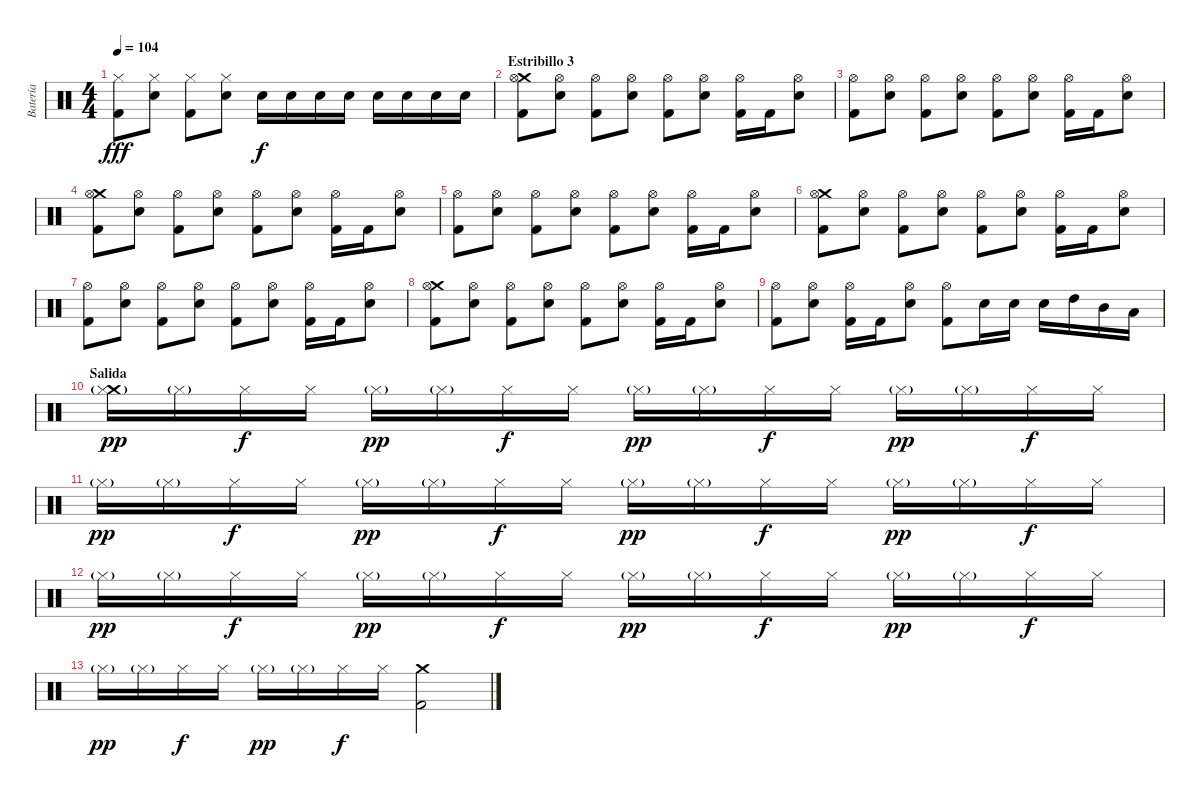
\track ("Batería" "Batería") {instrument percussion}
\staff {score}
\articulation defaults
\ts (4 4)
\tempo 104
\clef neutral
\ks c
("Hi-Hat (closed)" "Kick (hit) 2").8{dy fff} ("Hi-Hat (closed)" "Snare (hit) 2").8 ("Hi-Hat (closed)" "Kick (hit) 2").8 ("Hi-Hat (closed)" "Snare (hit) 2").8 "Snare (hit) 2".16{dy f} "Snare (hit) 2".16 "Snare (hit) 2".16 "Snare (hit) 2".16 "Snare (hit) 2".16 "Snare (hit) 2".16 "Snare (hit) 2".16 "Snare (hit) 2".16 |
\section ("" "Estribillo 3")
("Crash medium (hit)" "Hi-Hat (open)" "Kick (hit) 2").8 ("Hi-Hat (open)" "Snare (hit) 2").8 ("Hi-Hat (open)" "Kick (hit) 2").8 ("Hi-Hat (open)" "Snare (hit) 2").8 ("Hi-Hat (open)" "Kick (hit) 2").8 ("Hi-Hat (open)" "Snare (hit) 2").8 ("Hi-Hat (open)" "Kick (hit) 2").16 "Kick (hit) 2".16 ("Hi-Hat (open)" "Snare (hit) 2").8 |
("Hi-Hat (open)" "Kick (hit) 2").8 ("Hi-Hat (open)" "Snare (hit) 2").8 ("Hi-Hat (open)" "Kick (hit) 2").8 ("Hi-Hat (open)" "Snare (hit) 2").8 ("Hi-Hat (open)" "Kick (hit) 2").8 ("Hi-Hat (open)" "Snare (hit) 2").8 ("Hi-Hat (open)" "Kick (hit) 2").16 "Kick (hit) 2".16 ("Hi-Hat (open)" "Snare (hit) 2").8 |
("Crash medium (hit)" "Hi-Hat (open)" "Kick (hit) 2").8 ("Hi-Hat (open)" "Snare (hit) 2").8 ("Hi-Hat (open)" "Kick (hit) 2").8 ("Hi-Hat (open)" "Snare (hit) 2").8 ("Hi-Hat (open)" "Kick (hit) 2").8 ("Hi-Hat (open)" "Snare (hit) 2").8 ("Hi-Hat (open)" "Kick (hit) 2").16 "Kick (hit) 2".16 ("Hi-Hat (open)" "Snare (hit) 2").8 |
("Hi-Hat (open)" "Kick (hit) 2").8 ("Hi-Hat (open)" "Snare (hit) 2").8 ("Hi-Hat (open)" "Kick (hit) 2").8 ("Hi-Hat (open)" "Snare (hit) 2").8 ("Hi-Hat (open)" "Kick (hit) 2").8 ("Hi-Hat (open)" "Snare (hit) 2").8 ("Hi-Hat (open)" "Kick (hit) 2").16 "Kick (hit) 2".16 ("Hi-Hat (open)" "Snare (hit) 2").8 |
("Crash medium (hit)" "Hi-Hat (open)" "Kick (hit) 2").8 ("Hi-Hat (open)" "Snare (hit) 2").8 ("Hi-Hat (open)" "Kick (hit) 2").8 ("Hi-Hat (open)" "Snare (hit) 2").8 ("Hi-Hat (open)" "Kick (hit) 2").8 ("Hi-Hat (open)" "Snare (hit) 2").8 ("Hi-Hat (open)" "Kick (hit) 2").16 "Kick (hit) 2".16 ("Hi-Hat (open)" "Snare (hit) 2").8 |
("Hi-Hat (open)" "Kick (hit) 2").8 ("Hi-Hat (open)" "Snare (hit) 2").8 ("Hi-Hat (open)" "Kick (hit) 2").8 ("Hi-Hat (open)" "Snare (hit) 2").8 ("Hi-Hat (open)" "Kick (hit) 2").8 ("Hi-Hat (open)" "Snare (hit) 2").8 ("Hi-Hat (open)" "Kick (hit) 2").16 "Kick (hit) 2".16 ("Hi-Hat (open)" "Snare (hit) 2").8 |
("Crash medium (hit)" "Hi-Hat (open)" "Kick (hit) 2").8 ("Hi-Hat (open)" "Snare (hit) 2").8 ("Hi-Hat (open)" "Kick (hit) 2").8 ("Hi-Hat (open)" "Snare (hit) 2").8 ("Hi-Hat (open)" "Kick (hit) 2").8 ("Hi-Hat (open)" "Snare (hit) 2").8 ("Hi-Hat (open)" "Kick (hit) 2").16 "Kick (hit) 2".16 ("Hi-Hat (open)" "Snare (hit) 2").8 |
("Hi-Hat (open)" "Kick (hit) 2").8 ("Hi-Hat (open)" "Snare (hit) 2").8 ("Hi-Hat (open)" "Kick (hit) 2").16 "Kick (hit) 2".16 ("Hi-Hat (open)" "Snare (hit) 2").8 ("Hi-Hat (open)" "Kick (hit) 2").8 "Snare (hit) 2".16 "Snare (hit) 2".16 "Snare (hit) 2".16 "High Tom (hit)".16 "Mid Tom (hit)".16 "Low Tom (hit)".16 |
\section ("" "Salida")
("Crash medium (hit)" "Hi-Hat (closed)"{g}).16{dy pp} "Hi-Hat (closed)"{g}.16 "Hi-Hat (closed)".16{dy f} "Hi-Hat (closed)".16 "Hi-Hat (closed)"{g}.16{dy pp} "Hi-Hat (closed)"{g}.16 "Hi-Hat (closed)".16{dy f} "Hi-Hat (closed)".16 "Hi-Hat (closed)"{g}.16{dy pp} "Hi-Hat (closed)"{g}.16 "Hi-Hat (closed)".16{dy f} "Hi-Hat (closed)".16 "Hi-Hat (closed)"{g}.16{dy pp} "Hi-Hat (closed)"{g}.16 "Hi-Hat (closed)".16{dy f} "Hi-Hat (closed)".16 |
"Hi-Hat (closed)"{g}.16{dy pp} "Hi-Hat (closed)"{g}.16 "Hi-Hat (closed)".16{dy f} "Hi-Hat (closed)".16 "Hi-Hat (closed)"{g}.16{dy pp} "Hi-Hat (closed)"{g}.16 "Hi-Hat (closed)".16{dy f} "Hi-Hat (closed)".16 "Hi-Hat (closed)"{g}.16{dy pp} "Hi-Hat (closed)"{g}.16 "Hi-Hat (closed)".16{dy f} "Hi-Hat (closed)".16 "Hi-Hat (closed)"{g}.16{dy pp} "Hi-Hat (closed)"{g}.16 "Hi-Hat (closed)".16{dy f} "Hi-Hat (closed)".16 |
"Hi-Hat (closed)"{g}.16{dy pp} "Hi-Hat (closed)"{g}.16 "Hi-Hat (closed)".16{dy f} "Hi-Hat (closed)".16 "Hi-Hat (closed)"{g}.16{dy pp} "Hi-Hat (closed)"{g}.16 "Hi-Hat (closed)".16{dy f} "Hi-Hat (closed)".16 "Hi-Hat (closed)"{g}.16{dy pp} "Hi-Hat (closed)"{g}.16 "Hi-Hat (closed)".16{dy f} "Hi-Hat (closed)".16 "Hi-Hat (closed)"{g}.16{dy pp} "Hi-Hat (closed)"{g}.16 "Hi-Hat (closed)".16{dy f} "Hi-Hat (closed)".16 |
"Hi-Hat (closed)"{g}.16{dy pp} "Hi-Hat (closed)"{g}.16 "Hi-Hat (closed)".16{dy f} "Hi-Hat (closed)".16 "Hi-Hat (closed)"{g}.16{dy pp} "Hi-Hat (closed)"{g}.16 "Hi-Hat (closed)".16{dy f} "Hi-Hat (closed)".16 ("Crash medium (hit)" "Kick (hit) 2").2
